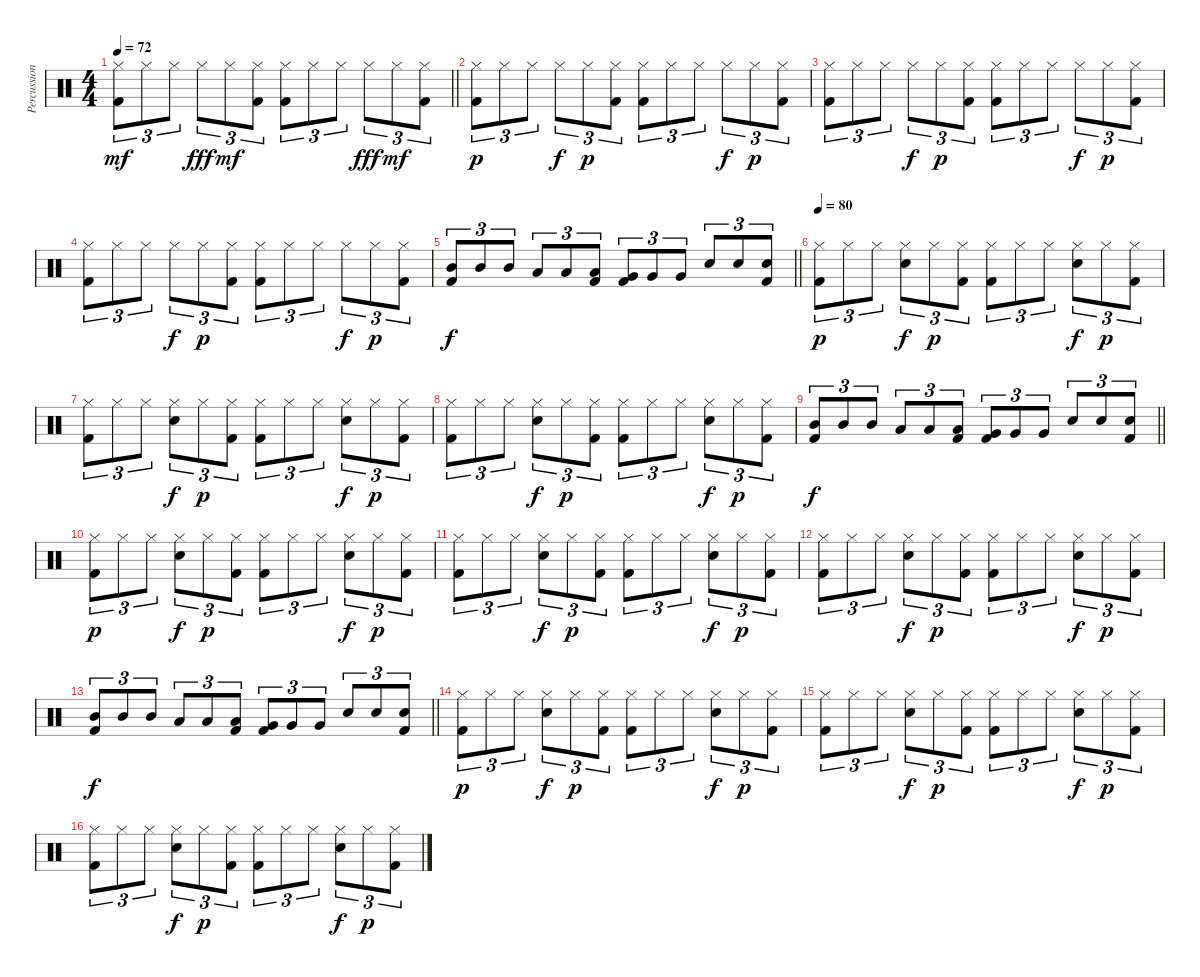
\track ("Percussion" "Percussion") {instrument percussion}
\staff {score}
\articulation defaults
\ts (4 4)
\tempo 72
\clef neutral
\barLineRight lightlight
\ks c
("Hi-Hat (closed)" "Kick (hit) 2").8{tu (3 2) dy mf} "Hi-Hat (closed)".8{tu (3 2)} "Hi-Hat (closed)".8{tu (3 2)} "Hi-Hat (closed)".8{tu (3 2) dy fff} "Hi-Hat (closed)".8{tu (3 2) dy mf} ("Hi-Hat (closed)" "Kick (hit) 2").8{tu (3 2)} ("Hi-Hat (closed)" "Kick (hit) 2").8{tu (3 2)} "Hi-Hat (closed)".8{tu (3 2)} "Hi-Hat (closed)".8{tu (3 2)} "Hi-Hat (closed)".8{tu (3 2) dy fff} "Hi-Hat (closed)".8{tu (3 2) dy mf} ("Hi-Hat (closed)" "Kick (hit) 2").8{tu (3 2)} |
("Hi-Hat (closed)" "Kick (hit) 2").8{tu (3 2) dy p} "Hi-Hat (closed)".8{tu (3 2)} "Hi-Hat (closed)".8{tu (3 2)} "Hi-Hat (closed)".8{tu (3 2) dy f} "Hi-Hat (closed)".8{tu (3 2) dy p} ("Hi-Hat (closed)" "Kick (hit) 2").8{tu (3 2)} ("Hi-Hat (closed)" "Kick (hit) 2").8{tu (3 2)} "Hi-Hat (closed)".8{tu (3 2)} "Hi-Hat (closed)".8{tu (3 2)} "Hi-Hat (closed)".8{tu (3 2) dy f} "Hi-Hat (closed)".8{tu (3 2) dy p} ("Hi-Hat (closed)" "Kick (hit) 2").8{tu (3 2)} |
("Hi-Hat (closed)" "Kick (hit) 2").8{tu (3 2)} "Hi-Hat (closed)".8{tu (3 2)} "Hi-Hat (closed)".8{tu (3 2)} "Hi-Hat (closed)".8{tu (3 2) dy f} "Hi-Hat (closed)".8{tu (3 2) dy p} ("Hi-Hat (closed)" "Kick (hit) 2").8{tu (3 2)} ("Hi-Hat (closed)" "Kick (hit) 2").8{tu (3 2)} "Hi-Hat (closed)".8{tu (3 2)} "Hi-Hat (closed)".8{tu (3 2)} "Hi-Hat (closed)".8{tu (3 2) dy f} "Hi-Hat (closed)".8{tu (3 2) dy p} ("Hi-Hat (closed)" "Kick (hit) 2").8{tu (3 2)} |
("Hi-Hat (closed)" "Kick (hit) 2").8{tu (3 2)} "Hi-Hat (closed)".8{tu (3 2)} "Hi-Hat (closed)".8{tu (3 2)} "Hi-Hat (closed)".8{tu (3 2) dy f} "Hi-Hat (closed)".8{tu (3 2) dy p} ("Hi-Hat (closed)" "Kick (hit) 2").8{tu (3 2)} ("Hi-Hat (closed)" "Kick (hit) 2").8{tu (3 2)} "Hi-Hat (closed)".8{tu (3 2)} "Hi-Hat (closed)".8{tu (3 2)} "Hi-Hat (closed)".8{tu (3 2) dy f} "Hi-Hat (closed)".8{tu (3 2) dy p} ("Hi-Hat (closed)" "Kick (hit) 2").8{tu (3 2)} |
\barLineRight lightlight
("Mid Tom (hit)" "Kick (hit) 2").8{tu (3 2) dy f} "Mid Tom (hit)".8{tu (3 2)} "Mid Tom (hit)".8{tu (3 2)} "Low Tom (hit)".8{tu (3 2)} "Low Tom (hit)".8{tu (3 2)} ("Low Tom (hit)" "Kick (hit) 2").8{tu (3 2)} ("Very Low Tom (hit)" "Kick (hit) 2").8{tu (3 2)} "Very Low Tom (hit)".8{tu (3 2)} "Very Low Tom (hit)".8{tu (3 2)} "Snare (hit) 2".8{tu (3 2)} "Snare (hit) 2".8{tu (3 2)} ("Snare (hit) 2" "Kick (hit) 2").8{tu (3 2)} |
\tempo 80
("Hi-Hat (closed)" "Kick (hit) 2").8{tu (3 2) dy p} "Hi-Hat (closed)".8{tu (3 2)} "Hi-Hat (closed)".8{tu (3 2)} ("Hi-Hat (closed)" "Snare (hit) 2").8{tu (3 2) dy f} "Hi-Hat (closed)".8{tu (3 2) dy p} ("Hi-Hat (closed)" "Kick (hit) 2").8{tu (3 2)} ("Hi-Hat (closed)" "Kick (hit) 2").8{tu (3 2)} "Hi-Hat (closed)".8{tu (3 2)} "Hi-Hat (closed)".8{tu (3 2)} ("Hi-Hat (closed)" "Snare (hit) 2").8{tu (3 2) dy f} "Hi-Hat (closed)".8{tu (3 2) dy p} ("Hi-Hat (closed)" "Kick (hit) 2").8{tu (3 2)} |
("Hi-Hat (closed)" "Kick (hit) 2").8{tu (3 2)} "Hi-Hat (closed)".8{tu (3 2)} "Hi-Hat (closed)".8{tu (3 2)} ("Hi-Hat (closed)" "Snare (hit) 2").8{tu (3 2) dy f} "Hi-Hat (closed)".8{tu (3 2) dy p} ("Hi-Hat (closed)" "Kick (hit) 2").8{tu (3 2)} ("Hi-Hat (closed)" "Kick (hit) 2").8{tu (3 2)} "Hi-Hat (closed)".8{tu (3 2)} "Hi-Hat (closed)".8{tu (3 2)} ("Hi-Hat (closed)" "Snare (hit) 2").8{tu (3 2) dy f} "Hi-Hat (closed)".8{tu (3 2) dy p} ("Hi-Hat (closed)" "Kick (hit) 2").8{tu (3 2)} |
("Hi-Hat (closed)" "Kick (hit) 2").8{tu (3 2)} "Hi-Hat (closed)".8{tu (3 2)} "Hi-Hat (closed)".8{tu (3 2)} ("Hi-Hat (closed)" "Snare (hit) 2").8{tu (3 2) dy f} "Hi-Hat (closed)".8{tu (3 2) dy p} ("Hi-Hat (closed)" "Kick (hit) 2").8{tu (3 2)} ("Hi-Hat (closed)" "Kick (hit) 2").8{tu (3 2)} "Hi-Hat (closed)".8{tu (3 2)} "Hi-Hat (closed)".8{tu (3 2)} ("Hi-Hat (closed)" "Snare (hit) 2").8{tu (3 2) dy f} "Hi-Hat (closed)".8{tu (3 2) dy p} ("Hi-Hat (closed)" "Kick (hit) 2").8{tu (3 2)} |
\barLineRight lightlight
("Mid Tom (hit)" "Kick (hit) 2").8{tu (3 2) dy f} "Mid Tom (hit)".8{tu (3 2)} "Mid Tom (hit)".8{tu (3 2)} "Low Tom (hit)".8{tu (3 2)} "Low Tom (hit)".8{tu (3 2)} ("Low Tom (hit)" "Kick (hit) 2").8{tu (3 2)} ("Very Low Tom (hit)" "Kick (hit) 2").8{tu (3 2)} "Very Low Tom (hit)".8{tu (3 2)} "Very Low Tom (hit)".8{tu (3 2)} "Snare (hit) 2".8{tu (3 2)} "Snare (hit) 2".8{tu (3 2)} ("Snare (hit) 2" "Kick (hit) 2").8{tu (3 2)} |
("Hi-Hat (closed)" "Kick (hit) 2").8{tu (3 2) dy p} "Hi-Hat (closed)".8{tu (3 2)} "Hi-Hat (closed)".8{tu (3 2)} ("Hi-Hat (closed)" "Snare (hit) 2").8{tu (3 2) dy f} "Hi-Hat (closed)".8{tu (3 2) dy p} ("Hi-Hat (closed)" "Kick (hit) 2").8{tu (3 2)} ("Hi-Hat (closed)" "Kick (hit) 2").8{tu (3 2)} "Hi-Hat (closed)".8{tu (3 2)} "Hi-Hat (closed)".8{tu (3 2)} ("Hi-Hat (closed)" "Snare (hit) 2").8{tu (3 2) dy f} "Hi-Hat (closed)".8{tu (3 2) dy p} ("Hi-Hat (closed)" "Kick (hit) 2").8{tu (3 2)} |
("Hi-Hat (closed)" "Kick (hit) 2").8{tu (3 2)} "Hi-Hat (closed)".8{tu (3 2)} "Hi-Hat (closed)".8{tu (3 2)} ("Hi-Hat (closed)" "Snare (hit) 2").8{tu (3 2) dy f} "Hi-Hat (closed)".8{tu (3 2) dy p} ("Hi-Hat (closed)" "Kick (hit) 2").8{tu (3 2)} ("Hi-Hat (closed)" "Kick (hit) 2").8{tu (3 2)} "Hi-Hat (closed)".8{tu (3 2)} "Hi-Hat (closed)".8{tu (3 2)} ("Hi-Hat (closed)" "Snare (hit) 2").8{tu (3 2) dy f} "Hi-Hat (closed)".8{tu (3 2) dy p} ("Hi-Hat (closed)" "Kick (hit) 2").8{tu (3 2)} |
("Hi-Hat (closed)" "Kick (hit) 2").8{tu (3 2)} "Hi-Hat (closed)".8{tu (3 2)} "Hi-Hat (closed)".8{tu (3 2)} ("Hi-Hat (closed)" "Snare (hit) 2").8{tu (3 2) dy f} "Hi-Hat (closed)".8{tu (3 2) dy p} ("Hi-Hat (closed)" "Kick (hit) 2").8{tu (3 2)} ("Hi-Hat (closed)" "Kick (hit) 2").8{tu (3 2)} "Hi-Hat (closed)".8{tu (3 2)} "Hi-Hat (closed)".8{tu (3 2)} ("Hi-Hat (closed)" "Snare (hit) 2").8{tu (3 2) dy f} "Hi-Hat (closed)".8{tu (3 2) dy p} ("Hi-Hat (closed)" "Kick (hit) 2").8{tu (3 2)} |
\barLineRight lightlight
("Mid Tom (hit)" "Kick (hit) 2").8{tu (3 2) dy f} "Mid Tom (hit)".8{tu (3 2)} "Mid Tom (hit)".8{tu (3 2)} "Low Tom (hit)".8{tu (3 2)} "Low Tom (hit)".8{tu (3 2)} ("Low Tom (hit)" "Kick (hit) 2").8{tu (3 2)} ("Very Low Tom (hit)" "Kick (hit) 2").8{tu (3 2)} "Very Low Tom (hit)".8{tu (3 2)} "Very Low Tom (hit)".8{tu (3 2)} "Snare (hit) 2".8{tu (3 2)} "Snare (hit) 2".8{tu (3 2)} ("Snare (hit) 2" "Kick (hit) 2").8{tu (3 2)} |
("Hi-Hat (closed)" "Kick (hit) 2").8{tu (3 2) dy p} "Hi-Hat (closed)".8{tu (3 2)} "Hi-Hat (closed)".8{tu (3 2)} ("Hi-Hat (closed)" "Snare (hit) 2").8{tu (3 2) dy f} "Hi-Hat (closed)".8{tu (3 2) dy p} ("Hi-Hat (closed)" "Kick (hit) 2").8{tu (3 2)} ("Hi-Hat (closed)" "Kick (hit) 2").8{tu (3 2)} "Hi-Hat (closed)".8{tu (3 2)} "Hi-Hat (closed)".8{tu (3 2)} ("Hi-Hat (closed)" "Snare (hit) 2").8{tu (3 2) dy f} "Hi-Hat (closed)".8{tu (3 2) dy p} ("Hi-Hat (closed)" "Kick (hit) 2").8{tu (3 2)} |
("Hi-Hat (closed)" "Kick (hit) 2").8{tu (3 2)} "Hi-Hat (closed)".8{tu (3 2)} "Hi-Hat (closed)".8{tu (3 2)} ("Hi-Hat (closed)" "Snare (hit) 2").8{tu (3 2) dy f} "Hi-Hat (closed)".8{tu (3 2) dy p} ("Hi-Hat (closed)" "Kick (hit) 2").8{tu (3 2)} ("Hi-Hat (closed)" "Kick (hit) 2").8{tu (3 2)} "Hi-Hat (closed)".8{tu (3 2)} "Hi-Hat (closed)".8{tu (3 2)} ("Hi-Hat (closed)" "Snare (hit) 2").8{tu (3 2) dy f} "Hi-Hat (closed)".8{tu (3 2) dy p} ("Hi-Hat (closed)" "Kick (hit) 2").8{tu (3 2)} |
("Hi-Hat (closed)" "Kick (hit) 2").8{tu (3 2)} "Hi-Hat (closed)".8{tu (3 2)} "Hi-Hat (closed)".8{tu (3 2)} ("Hi-Hat (closed)" "Snare (hit) 2").8{tu (3 2) dy f} "Hi-Hat (closed)".8{tu (3 2) dy p} ("Hi-Hat (closed)" "Kick (hit) 2").8{tu (3 2)} ("Hi-Hat (closed)" "Kick (hit) 2").8{tu (3 2)} "Hi-Hat (closed)".8{tu (3 2)} "Hi-Hat (closed)".8{tu (3 2)} ("Hi-Hat (closed)" "Snare (hit) 2").8{tu (3 2) dy f} "Hi-Hat (closed)".8{tu (3 2) dy p} ("Hi-Hat (closed)" "Kick (hit) 2").8{tu (3 2)}
